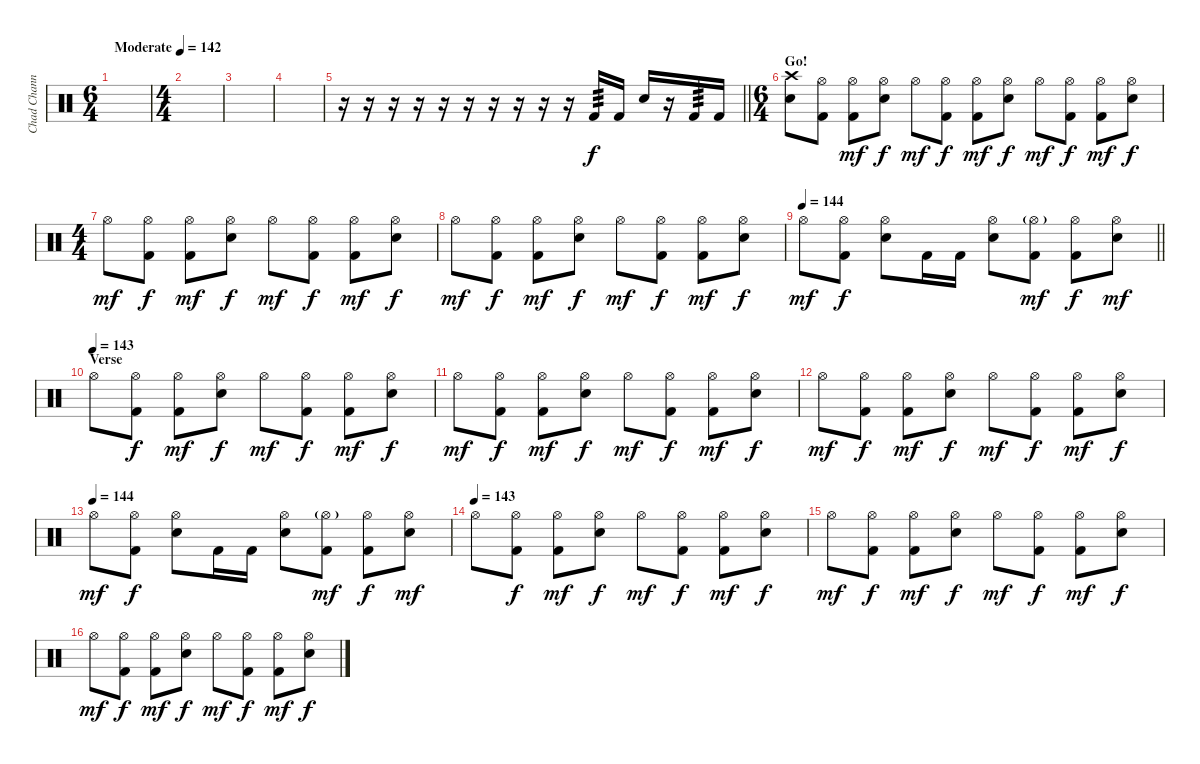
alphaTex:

\track ("Chad Channing" "Chad Chann") {instrument percussion}
\staff {score}
\articulation defaults
\ts (6 4)
\tempo (142 "Moderate")
\clef neutral
\ks c
|
\ts (4 4)
|
|
|
\barLineRight lightlight
r.16 r.16 r.16 r.16 r.16 r.16 r.16 r.16 r.16 r.16 "Kick (hit) 2".16{tp 3} "Kick (hit) 2".16 "Electric Snare (hit)".16 r.16 "Kick (hit) 2".16{tp 3} "Kick (hit) 2".16 |
\ts (6 4)
\section ("" "Go!")
("Crash high (hit)" "Electric Snare (hit)").8 ("Kick (hit) 2" "Hi-Hat (open)").8 ("Kick (hit) 2" "Hi-Hat (open)").8{dy mf} ("Electric Snare (hit)" "Hi-Hat (open)").8{dy f} "Hi-Hat (open)".8{dy mf} ("Kick (hit) 2" "Hi-Hat (open)").8{dy f} ("Kick (hit) 2" "Hi-Hat (open)").8{dy mf} ("Electric Snare (hit)" "Hi-Hat (open)").8{dy f} "Hi-Hat (open)".8{dy mf} ("Kick (hit) 2" "Hi-Hat (open)").8{dy f} ("Kick (hit) 2" "Hi-Hat (open)").8{dy mf} ("Electric Snare (hit)" "Hi-Hat (open)").8{dy f} |
\ts (4 4)
"Hi-Hat (open)".8{dy mf} ("Kick (hit) 2" "Hi-Hat (open)").8{dy f} ("Kick (hit) 2" "Hi-Hat (open)").8{dy mf} ("Electric Snare (hit)" "Hi-Hat (open)").8{dy f} "Hi-Hat (open)".8{dy mf} ("Kick (hit) 2" "Hi-Hat (open)").8{dy f} ("Kick (hit) 2" "Hi-Hat (open)").8{dy mf} ("Electric Snare (hit)" "Hi-Hat (open)").8{dy f} |
"Hi-Hat (open)".8{dy mf} ("Kick (hit) 2" "Hi-Hat (open)").8{dy f} ("Kick (hit) 2" "Hi-Hat (open)").8{dy mf} ("Electric Snare (hit)" "Hi-Hat (open)").8{dy f} "Hi-Hat (open)".8{dy mf} ("Kick (hit) 2" "Hi-Hat (open)").8{dy f} ("Kick (hit) 2" "Hi-Hat (open)").8{dy mf} ("Electric Snare (hit)" "Hi-Hat (open)").8{dy f} |
\tempo 144
\barLineRight lightlight "Hi-Hat (open)".8{dy mf}
("Kick (hit) 2" "Hi-Hat (open)").8{dy f} ("Electric Snare (hit)" "Hi-Hat (open)").8 "Kick (hit) 2".16 "Kick (hit) 2".16 ("Electric Snare (hit)" "Hi-Hat (open)").8 ("Kick (hit) 2" "Hi-Hat (open)"{g}).8{dy mf} ("Kick (hit) 2" "Hi-Hat (open)").8{dy f} ("Electric Snare (hit)" "Hi-Hat (open)").8{dy mf} |
\section ("" "Verse")
\tempo 145
\tempo (143)
"Hi-Hat (open)".8 ("Kick (hit) 2" "Hi-Hat (open)").8{dy f} ("Kick (hit) 2" "Hi-Hat (open)").8{dy mf} ("Electric Snare (hit)" "Hi-Hat (open)").8{dy f} "Hi-Hat (open)".8{dy mf} ("Kick (hit) 2" "Hi-Hat (open)").8{dy f} ("Kick (hit) 2" "Hi-Hat (open)").8{dy mf} ("Electric Snare (hit)" "Hi-Hat (open)").8{dy f} |
"Hi-Hat (open)".8{dy mf} ("Kick (hit) 2" "Hi-Hat (open)").8{dy f} ("Kick (hit) 2" "Hi-Hat (open)").8{dy mf} ("Electric Snare (hit)" "Hi-Hat (open)").8{dy f} "Hi-Hat (open)".8{dy mf} ("Kick (hit) 2" "Hi-Hat (open)").8{dy f} ("Kick (hit) 2" "Hi-Hat (open)").8{dy mf} ("Electric Snare (hit)" "Hi-Hat (open)").8{dy f} |
"Hi-Hat (open)".8{dy mf} ("Kick (hit) 2" "Hi-Hat (open)").8{dy f} ("Kick (hit) 2" "Hi-Hat (open)").8{dy mf} ("Electric Snare (hit)" "Hi-Hat (open)").8{dy f} "Hi-Hat (open)".8{dy mf} ("Kick (hit) 2" "Hi-Hat (open)").8{dy f} ("Kick (hit) 2" "Hi-Hat (open)").8{dy mf} ("Electric Snare (hit)" "Hi-Hat (open)").8{dy f} |
\tempo (144)
"Hi-Hat (open)".8{dy mf} ("Kick (hit) 2" "Hi-Hat (open)").8{dy f} ("Electric Snare (hit)" "Hi-Hat (open)").8 "Kick (hit) 2".16 "Kick (hit) 2".16 ("Electric Snare (hit)" "Hi-Hat (open)").8 ("Kick (hit) 2" "Hi-Hat (open)"{g}).8{dy mf} ("Kick (hit) 2" "Hi-Hat (open)").8{dy f} ("Electric Snare (hit)" "Hi-Hat (open)").8{dy mf} |
\tempo (143)
"Hi-Hat (open)".8 ("Kick (hit) 2" "Hi-Hat (open)").8{dy f} ("Kick (hit) 2" "Hi-Hat (open)").8{dy mf} ("Electric Snare (hit)" "Hi-Hat (open)").8{dy f} "Hi-Hat (open)".8{dy mf} ("Kick (hit) 2" "Hi-Hat (open)").8{dy f} ("Kick (hit) 2" "Hi-Hat (open)").8{dy mf} ("Electric Snare (hit)" "Hi-Hat (open)").8{dy f} |
"Hi-Hat (open)".8{dy mf} ("Kick (hit) 2" "Hi-Hat (open)").8{dy f} ("Kick (hit) 2" "Hi-Hat (open)").8{dy mf} ("Electric Snare (hit)" "Hi-Hat (open)").8{dy f} "Hi-Hat (open)".8{dy mf} ("Kick (hit) 2" "Hi-Hat (open)").8{dy f} ("Kick (hit) 2" "Hi-Hat (open)").8{dy mf} ("Electric Snare (hit)" "Hi-Hat (open)").8{dy f} |
"Hi-Hat (open)".8{dy mf} ("Kick (hit) 2" "Hi-Hat (open)").8{dy f} ("Kick (hit) 2" "Hi-Hat (open)").8{dy mf} ("Electric Snare (hit)" "Hi-Hat (open)").8{dy f} "Hi-Hat (open)".8{dy mf} ("Kick (hit) 2" "Hi-Hat (open)").8{dy f} ("Kick (hit) 2" "Hi-Hat (open)").8{dy mf} ("Electric Snare (hit)" "Hi-Hat (open)").8{dy f}
